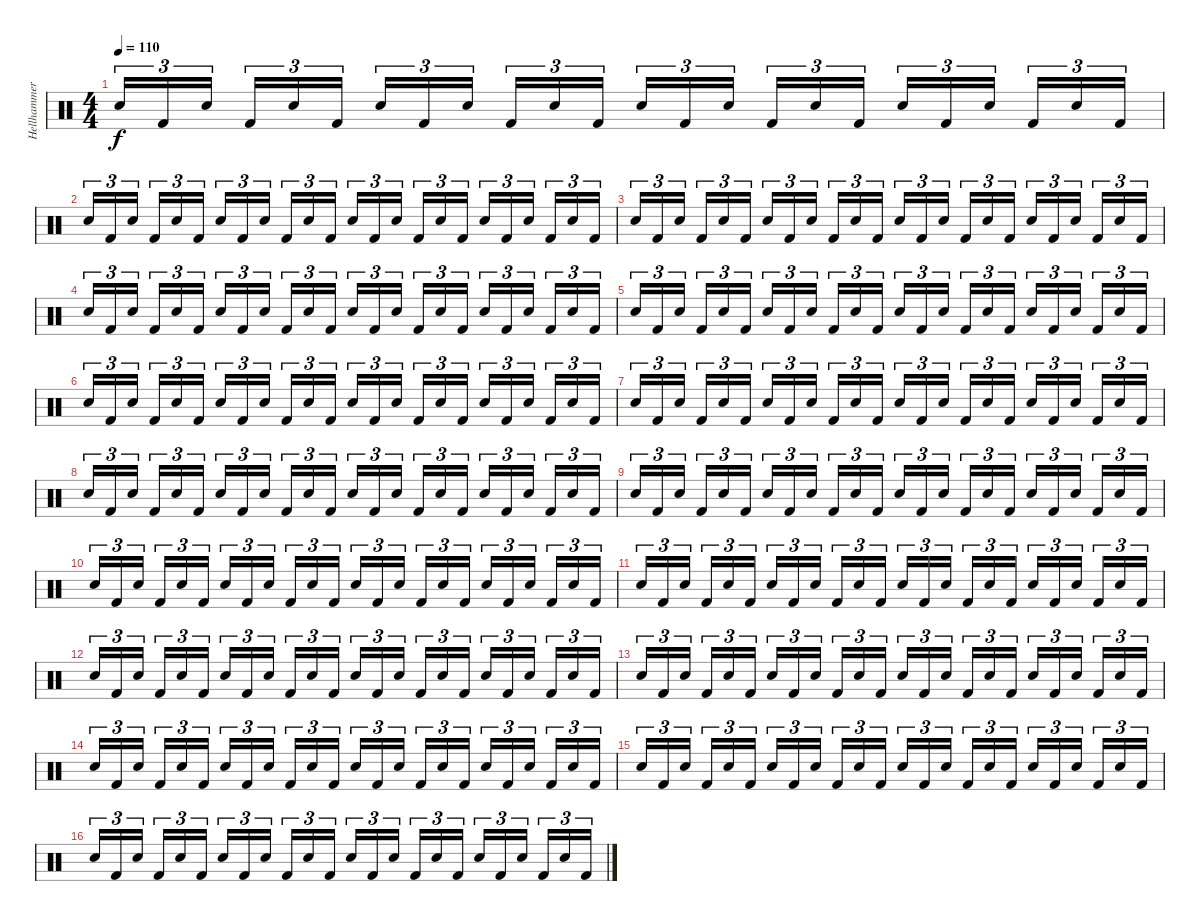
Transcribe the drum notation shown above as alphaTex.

\track ("Hellhammer" "Hellhammer") {instrument percussion}
\staff {score}
\articulation defaults
\ts (4 4)
\tempo 110
\clef neutral
\ks c "Electric Snare (hit)".16{tu (3 2) dy f} "Kick (hit) 2".16{tu (3 2)} "Electric Snare (hit)".16{tu (3 2)} "Kick (hit) 2".16{tu (3 2)} "Electric Snare (hit)".16{tu (3 2)} "Kick (hit) 2".16{tu (3 2)} "Electric Snare (hit)".16{tu (3 2)} "Kick (hit) 2".16{tu (3 2)} "Electric Snare (hit)".16{tu (3 2)} "Kick (hit) 2".16{tu (3 2)} "Electric Snare (hit)".16{tu (3 2)} "Kick (hit) 2".16{tu (3 2)} "Electric Snare (hit)".16{tu (3 2)} "Kick (hit) 2".16{tu (3 2)} "Electric Snare (hit)".16{tu (3 2)} "Kick (hit) 2".16{tu (3 2)} "Electric Snare (hit)".16{tu (3 2)} "Kick (hit) 2".16{tu (3 2)} "Electric Snare (hit)".16{tu (3 2)} "Kick (hit) 2".16{tu (3 2)} "Electric Snare (hit)".16{tu (3 2)} "Kick (hit) 2".16{tu (3 2)} "Electric Snare (hit)".16{tu (3 2)} "Kick (hit) 2".16{tu (3 2)}
|
"Electric Snare (hit)".16{tu (3 2)} "Kick (hit) 2".16{tu (3 2)} "Electric Snare (hit)".16{tu (3 2)} "Kick (hit) 2".16{tu (3 2)} "Electric Snare (hit)".16{tu (3 2)} "Kick (hit) 2".16{tu (3 2)} "Electric Snare (hit)".16{tu (3 2)} "Kick (hit) 2".16{tu (3 2)} "Electric Snare (hit)".16{tu (3 2)} "Kick (hit) 2".16{tu (3 2)} "Electric Snare (hit)".16{tu (3 2)} "Kick (hit) 2".16{tu (3 2)} "Electric Snare (hit)".16{tu (3 2)} "Kick (hit) 2".16{tu (3 2)} "Electric Snare (hit)".16{tu (3 2)} "Kick (hit) 2".16{tu (3 2)} "Electric Snare (hit)".16{tu (3 2)} "Kick (hit) 2".16{tu (3 2)} "Electric Snare (hit)".16{tu (3 2)} "Kick (hit) 2".16{tu (3 2)} "Electric Snare (hit)".16{tu (3 2)} "Kick (hit) 2".16{tu (3 2)} "Electric Snare (hit)".16{tu (3 2)} "Kick (hit) 2".16{tu (3 2)} |
"Electric Snare (hit)".16{tu (3 2)} "Kick (hit) 2".16{tu (3 2)} "Electric Snare (hit)".16{tu (3 2)} "Kick (hit) 2".16{tu (3 2)} "Electric Snare (hit)".16{tu (3 2)} "Kick (hit) 2".16{tu (3 2)} "Electric Snare (hit)".16{tu (3 2)} "Kick (hit) 2".16{tu (3 2)} "Electric Snare (hit)".16{tu (3 2)} "Kick (hit) 2".16{tu (3 2)} "Electric Snare (hit)".16{tu (3 2)} "Kick (hit) 2".16{tu (3 2)} "Electric Snare (hit)".16{tu (3 2)} "Kick (hit) 2".16{tu (3 2)} "Electric Snare (hit)".16{tu (3 2)} "Kick (hit) 2".16{tu (3 2)} "Electric Snare (hit)".16{tu (3 2)} "Kick (hit) 2".16{tu (3 2)} "Electric Snare (hit)".16{tu (3 2)} "Kick (hit) 2".16{tu (3 2)} "Electric Snare (hit)".16{tu (3 2)} "Kick (hit) 2".16{tu (3 2)} "Electric Snare (hit)".16{tu (3 2)} "Kick (hit) 2".16{tu (3 2)} |
"Electric Snare (hit)".16{tu (3 2)} "Kick (hit) 2".16{tu (3 2)} "Electric Snare (hit)".16{tu (3 2)} "Kick (hit) 2".16{tu (3 2)} "Electric Snare (hit)".16{tu (3 2)} "Kick (hit) 2".16{tu (3 2)} "Electric Snare (hit)".16{tu (3 2)} "Kick (hit) 2".16{tu (3 2)} "Electric Snare (hit)".16{tu (3 2)} "Kick (hit) 2".16{tu (3 2)} "Electric Snare (hit)".16{tu (3 2)} "Kick (hit) 2".16{tu (3 2)} "Electric Snare (hit)".16{tu (3 2)} "Kick (hit) 2".16{tu (3 2)} "Electric Snare (hit)".16{tu (3 2)} "Kick (hit) 2".16{tu (3 2)} "Electric Snare (hit)".16{tu (3 2)} "Kick (hit) 2".16{tu (3 2)} "Electric Snare (hit)".16{tu (3 2)} "Kick (hit) 2".16{tu (3 2)} "Electric Snare (hit)".16{tu (3 2)} "Kick (hit) 2".16{tu (3 2)} "Electric Snare (hit)".16{tu (3 2)} "Kick (hit) 2".16{tu (3 2)} |
"Electric Snare (hit)".16{tu (3 2)} "Kick (hit) 2".16{tu (3 2)} "Electric Snare (hit)".16{tu (3 2)} "Kick (hit) 2".16{tu (3 2)} "Electric Snare (hit)".16{tu (3 2)} "Kick (hit) 2".16{tu (3 2)} "Electric Snare (hit)".16{tu (3 2)} "Kick (hit) 2".16{tu (3 2)} "Electric Snare (hit)".16{tu (3 2)} "Kick (hit) 2".16{tu (3 2)} "Electric Snare (hit)".16{tu (3 2)} "Kick (hit) 2".16{tu (3 2)} "Electric Snare (hit)".16{tu (3 2)} "Kick (hit) 2".16{tu (3 2)} "Electric Snare (hit)".16{tu (3 2)} "Kick (hit) 2".16{tu (3 2)} "Electric Snare (hit)".16{tu (3 2)} "Kick (hit) 2".16{tu (3 2)} "Electric Snare (hit)".16{tu (3 2)} "Kick (hit) 2".16{tu (3 2)} "Electric Snare (hit)".16{tu (3 2)} "Kick (hit) 2".16{tu (3 2)} "Electric Snare (hit)".16{tu (3 2)} "Kick (hit) 2".16{tu (3 2)} |
"Electric Snare (hit)".16{tu (3 2)} "Kick (hit) 2".16{tu (3 2)} "Electric Snare (hit)".16{tu (3 2)} "Kick (hit) 2".16{tu (3 2)} "Electric Snare (hit)".16{tu (3 2)} "Kick (hit) 2".16{tu (3 2)} "Electric Snare (hit)".16{tu (3 2)} "Kick (hit) 2".16{tu (3 2)} "Electric Snare (hit)".16{tu (3 2)} "Kick (hit) 2".16{tu (3 2)} "Electric Snare (hit)".16{tu (3 2)} "Kick (hit) 2".16{tu (3 2)} "Electric Snare (hit)".16{tu (3 2)} "Kick (hit) 2".16{tu (3 2)} "Electric Snare (hit)".16{tu (3 2)} "Kick (hit) 2".16{tu (3 2)} "Electric Snare (hit)".16{tu (3 2)} "Kick (hit) 2".16{tu (3 2)} "Electric Snare (hit)".16{tu (3 2)} "Kick (hit) 2".16{tu (3 2)} "Electric Snare (hit)".16{tu (3 2)} "Kick (hit) 2".16{tu (3 2)} "Electric Snare (hit)".16{tu (3 2)} "Kick (hit) 2".16{tu (3 2)} |
"Electric Snare (hit)".16{tu (3 2)} "Kick (hit) 2".16{tu (3 2)} "Electric Snare (hit)".16{tu (3 2)} "Kick (hit) 2".16{tu (3 2)} "Electric Snare (hit)".16{tu (3 2)} "Kick (hit) 2".16{tu (3 2)} "Electric Snare (hit)".16{tu (3 2)} "Kick (hit) 2".16{tu (3 2)} "Electric Snare (hit)".16{tu (3 2)} "Kick (hit) 2".16{tu (3 2)} "Electric Snare (hit)".16{tu (3 2)} "Kick (hit) 2".16{tu (3 2)} "Electric Snare (hit)".16{tu (3 2)} "Kick (hit) 2".16{tu (3 2)} "Electric Snare (hit)".16{tu (3 2)} "Kick (hit) 2".16{tu (3 2)} "Electric Snare (hit)".16{tu (3 2)} "Kick (hit) 2".16{tu (3 2)} "Electric Snare (hit)".16{tu (3 2)} "Kick (hit) 2".16{tu (3 2)} "Electric Snare (hit)".16{tu (3 2)} "Kick (hit) 2".16{tu (3 2)} "Electric Snare (hit)".16{tu (3 2)} "Kick (hit) 2".16{tu (3 2)} |
"Electric Snare (hit)".16{tu (3 2)} "Kick (hit) 2".16{tu (3 2)} "Electric Snare (hit)".16{tu (3 2)} "Kick (hit) 2".16{tu (3 2)} "Electric Snare (hit)".16{tu (3 2)} "Kick (hit) 2".16{tu (3 2)} "Electric Snare (hit)".16{tu (3 2)} "Kick (hit) 2".16{tu (3 2)} "Electric Snare (hit)".16{tu (3 2)} "Kick (hit) 2".16{tu (3 2)} "Electric Snare (hit)".16{tu (3 2)} "Kick (hit) 2".16{tu (3 2)} "Electric Snare (hit)".16{tu (3 2)} "Kick (hit) 2".16{tu (3 2)} "Electric Snare (hit)".16{tu (3 2)} "Kick (hit) 2".16{tu (3 2)} "Electric Snare (hit)".16{tu (3 2)} "Kick (hit) 2".16{tu (3 2)} "Electric Snare (hit)".16{tu (3 2)} "Kick (hit) 2".16{tu (3 2)} "Electric Snare (hit)".16{tu (3 2)} "Kick (hit) 2".16{tu (3 2)} "Electric Snare (hit)".16{tu (3 2)} "Kick (hit) 2".16{tu (3 2)} |
"Electric Snare (hit)".16{tu (3 2)} "Kick (hit) 2".16{tu (3 2)} "Electric Snare (hit)".16{tu (3 2)} "Kick (hit) 2".16{tu (3 2)} "Electric Snare (hit)".16{tu (3 2)} "Kick (hit) 2".16{tu (3 2)} "Electric Snare (hit)".16{tu (3 2)} "Kick (hit) 2".16{tu (3 2)} "Electric Snare (hit)".16{tu (3 2)} "Kick (hit) 2".16{tu (3 2)} "Electric Snare (hit)".16{tu (3 2)} "Kick (hit) 2".16{tu (3 2)} "Electric Snare (hit)".16{tu (3 2)} "Kick (hit) 2".16{tu (3 2)} "Electric Snare (hit)".16{tu (3 2)} "Kick (hit) 2".16{tu (3 2)} "Electric Snare (hit)".16{tu (3 2)} "Kick (hit) 2".16{tu (3 2)} "Electric Snare (hit)".16{tu (3 2)} "Kick (hit) 2".16{tu (3 2)} "Electric Snare (hit)".16{tu (3 2)} "Kick (hit) 2".16{tu (3 2)} "Electric Snare (hit)".16{tu (3 2)} "Kick (hit) 2".16{tu (3 2)} |
"Electric Snare (hit)".16{tu (3 2)} "Kick (hit) 2".16{tu (3 2)} "Electric Snare (hit)".16{tu (3 2)} "Kick (hit) 2".16{tu (3 2)} "Electric Snare (hit)".16{tu (3 2)} "Kick (hit) 2".16{tu (3 2)} "Electric Snare (hit)".16{tu (3 2)} "Kick (hit) 2".16{tu (3 2)} "Electric Snare (hit)".16{tu (3 2)} "Kick (hit) 2".16{tu (3 2)} "Electric Snare (hit)".16{tu (3 2)} "Kick (hit) 2".16{tu (3 2)} "Electric Snare (hit)".16{tu (3 2)} "Kick (hit) 2".16{tu (3 2)} "Electric Snare (hit)".16{tu (3 2)} "Kick (hit) 2".16{tu (3 2)} "Electric Snare (hit)".16{tu (3 2)} "Kick (hit) 2".16{tu (3 2)} "Electric Snare (hit)".16{tu (3 2)} "Kick (hit) 2".16{tu (3 2)} "Electric Snare (hit)".16{tu (3 2)} "Kick (hit) 2".16{tu (3 2)} "Electric Snare (hit)".16{tu (3 2)} "Kick (hit) 2".16{tu (3 2)} |
"Electric Snare (hit)".16{tu (3 2)} "Kick (hit) 2".16{tu (3 2)} "Electric Snare (hit)".16{tu (3 2)} "Kick (hit) 2".16{tu (3 2)} "Electric Snare (hit)".16{tu (3 2)} "Kick (hit) 2".16{tu (3 2)} "Electric Snare (hit)".16{tu (3 2)} "Kick (hit) 2".16{tu (3 2)} "Electric Snare (hit)".16{tu (3 2)} "Kick (hit) 2".16{tu (3 2)} "Electric Snare (hit)".16{tu (3 2)} "Kick (hit) 2".16{tu (3 2)} "Electric Snare (hit)".16{tu (3 2)} "Kick (hit) 2".16{tu (3 2)} "Electric Snare (hit)".16{tu (3 2)} "Kick (hit) 2".16{tu (3 2)} "Electric Snare (hit)".16{tu (3 2)} "Kick (hit) 2".16{tu (3 2)} "Electric Snare (hit)".16{tu (3 2)} "Kick (hit) 2".16{tu (3 2)} "Electric Snare (hit)".16{tu (3 2)} "Kick (hit) 2".16{tu (3 2)} "Electric Snare (hit)".16{tu (3 2)} "Kick (hit) 2".16{tu (3 2)} |
"Electric Snare (hit)".16{tu (3 2)} "Kick (hit) 2".16{tu (3 2)} "Electric Snare (hit)".16{tu (3 2)} "Kick (hit) 2".16{tu (3 2)} "Electric Snare (hit)".16{tu (3 2)} "Kick (hit) 2".16{tu (3 2)} "Electric Snare (hit)".16{tu (3 2)} "Kick (hit) 2".16{tu (3 2)} "Electric Snare (hit)".16{tu (3 2)} "Kick (hit) 2".16{tu (3 2)} "Electric Snare (hit)".16{tu (3 2)} "Kick (hit) 2".16{tu (3 2)} "Electric Snare (hit)".16{tu (3 2)} "Kick (hit) 2".16{tu (3 2)} "Electric Snare (hit)".16{tu (3 2)} "Kick (hit) 2".16{tu (3 2)} "Electric Snare (hit)".16{tu (3 2)} "Kick (hit) 2".16{tu (3 2)} "Electric Snare (hit)".16{tu (3 2)} "Kick (hit) 2".16{tu (3 2)} "Electric Snare (hit)".16{tu (3 2)} "Kick (hit) 2".16{tu (3 2)} "Electric Snare (hit)".16{tu (3 2)} "Kick (hit) 2".16{tu (3 2)} |
"Electric Snare (hit)".16{tu (3 2)} "Kick (hit) 2".16{tu (3 2)} "Electric Snare (hit)".16{tu (3 2)} "Kick (hit) 2".16{tu (3 2)} "Electric Snare (hit)".16{tu (3 2)} "Kick (hit) 2".16{tu (3 2)} "Electric Snare (hit)".16{tu (3 2)} "Kick (hit) 2".16{tu (3 2)} "Electric Snare (hit)".16{tu (3 2)} "Kick (hit) 2".16{tu (3 2)} "Electric Snare (hit)".16{tu (3 2)} "Kick (hit) 2".16{tu (3 2)} "Electric Snare (hit)".16{tu (3 2)} "Kick (hit) 2".16{tu (3 2)} "Electric Snare (hit)".16{tu (3 2)} "Kick (hit) 2".16{tu (3 2)} "Electric Snare (hit)".16{tu (3 2)} "Kick (hit) 2".16{tu (3 2)} "Electric Snare (hit)".16{tu (3 2)} "Kick (hit) 2".16{tu (3 2)} "Electric Snare (hit)".16{tu (3 2)} "Kick (hit) 2".16{tu (3 2)} "Electric Snare (hit)".16{tu (3 2)} "Kick (hit) 2".16{tu (3 2)} |
"Electric Snare (hit)".16{tu (3 2)} "Kick (hit) 2".16{tu (3 2)} "Electric Snare (hit)".16{tu (3 2)} "Kick (hit) 2".16{tu (3 2)} "Electric Snare (hit)".16{tu (3 2)} "Kick (hit) 2".16{tu (3 2)} "Electric Snare (hit)".16{tu (3 2)} "Kick (hit) 2".16{tu (3 2)} "Electric Snare (hit)".16{tu (3 2)} "Kick (hit) 2".16{tu (3 2)} "Electric Snare (hit)".16{tu (3 2)} "Kick (hit) 2".16{tu (3 2)} "Electric Snare (hit)".16{tu (3 2)} "Kick (hit) 2".16{tu (3 2)} "Electric Snare (hit)".16{tu (3 2)} "Kick (hit) 2".16{tu (3 2)} "Electric Snare (hit)".16{tu (3 2)} "Kick (hit) 2".16{tu (3 2)} "Electric Snare (hit)".16{tu (3 2)} "Kick (hit) 2".16{tu (3 2)} "Electric Snare (hit)".16{tu (3 2)} "Kick (hit) 2".16{tu (3 2)} "Electric Snare (hit)".16{tu (3 2)} "Kick (hit) 2".16{tu (3 2)} |
"Electric Snare (hit)".16{tu (3 2)} "Kick (hit) 2".16{tu (3 2)} "Electric Snare (hit)".16{tu (3 2)} "Kick (hit) 2".16{tu (3 2)} "Electric Snare (hit)".16{tu (3 2)} "Kick (hit) 2".16{tu (3 2)} "Electric Snare (hit)".16{tu (3 2)} "Kick (hit) 2".16{tu (3 2)} "Electric Snare (hit)".16{tu (3 2)} "Kick (hit) 2".16{tu (3 2)} "Electric Snare (hit)".16{tu (3 2)} "Kick (hit) 2".16{tu (3 2)} "Electric Snare (hit)".16{tu (3 2)} "Kick (hit) 2".16{tu (3 2)} "Electric Snare (hit)".16{tu (3 2)} "Kick (hit) 2".16{tu (3 2)} "Electric Snare (hit)".16{tu (3 2)} "Kick (hit) 2".16{tu (3 2)} "Electric Snare (hit)".16{tu (3 2)} "Kick (hit) 2".16{tu (3 2)} "Electric Snare (hit)".16{tu (3 2)} "Kick (hit) 2".16{tu (3 2)} "Electric Snare (hit)".16{tu (3 2)} "Kick (hit) 2".16{tu (3 2)} |
"Electric Snare (hit)".16{tu (3 2)} "Kick (hit) 2".16{tu (3 2)} "Electric Snare (hit)".16{tu (3 2)} "Kick (hit) 2".16{tu (3 2)} "Electric Snare (hit)".16{tu (3 2)} "Kick (hit) 2".16{tu (3 2)} "Electric Snare (hit)".16{tu (3 2)} "Kick (hit) 2".16{tu (3 2)} "Electric Snare (hit)".16{tu (3 2)} "Kick (hit) 2".16{tu (3 2)} "Electric Snare (hit)".16{tu (3 2)} "Kick (hit) 2".16{tu (3 2)} "Electric Snare (hit)".16{tu (3 2)} "Kick (hit) 2".16{tu (3 2)} "Electric Snare (hit)".16{tu (3 2)} "Kick (hit) 2".16{tu (3 2)} "Electric Snare (hit)".16{tu (3 2)} "Kick (hit) 2".16{tu (3 2)} "Electric Snare (hit)".16{tu (3 2)} "Kick (hit) 2".16{tu (3 2)} "Electric Snare (hit)".16{tu (3 2)} "Kick (hit) 2".16{tu (3 2)} "Electric Snare (hit)".16{tu (3 2)} "Kick (hit) 2".16{tu (3 2)}
